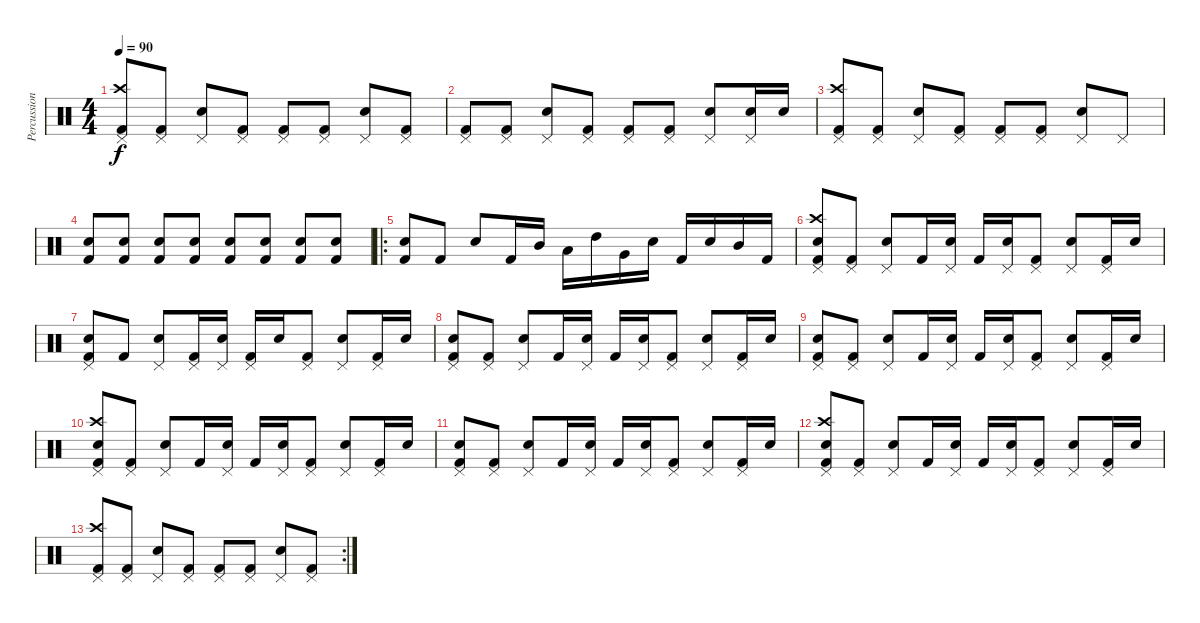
\track ("Percussions" "Percussion") {instrument percussion}
\staff {score}
\articulation defaults
\ts (4 4)
\tempo 90
\clef neutral
\ks c
("Pedal Hi-Hat (hit)" "Crash high (hit)" "Kick (hit) 2").8{dy f} ("Pedal Hi-Hat (hit)" "Kick (hit) 2").8 ("Pedal Hi-Hat (hit)" "Electric Snare (hit)").8 ("Pedal Hi-Hat (hit)" "Kick (hit) 2").8 ("Pedal Hi-Hat (hit)" "Kick (hit) 2").8 ("Pedal Hi-Hat (hit)" "Kick (hit) 2").8 ("Pedal Hi-Hat (hit)" "Electric Snare (hit)").8 ("Pedal Hi-Hat (hit)" "Kick (hit) 2").8 |
("Pedal Hi-Hat (hit)" "Kick (hit) 2").8 ("Pedal Hi-Hat (hit)" "Kick (hit) 2").8 ("Pedal Hi-Hat (hit)" "Electric Snare (hit)").8 ("Pedal Hi-Hat (hit)" "Kick (hit) 2").8 ("Pedal Hi-Hat (hit)" "Kick (hit) 2").8 ("Pedal Hi-Hat (hit)" "Kick (hit) 2").8 ("Pedal Hi-Hat (hit)" "Electric Snare (hit)").8 ("Pedal Hi-Hat (hit)" "Electric Snare (hit)").16 "Electric Snare (hit)".16 |
("Pedal Hi-Hat (hit)" "Crash high (hit)" "Kick (hit) 2").8 ("Pedal Hi-Hat (hit)" "Kick (hit) 2").8 ("Pedal Hi-Hat (hit)" "Electric Snare (hit)").8 ("Pedal Hi-Hat (hit)" "Kick (hit) 2").8 ("Pedal Hi-Hat (hit)" "Kick (hit) 2").8 ("Pedal Hi-Hat (hit)" "Kick (hit) 2").8 ("Pedal Hi-Hat (hit)" "Electric Snare (hit)").8 "Pedal Hi-Hat (hit)".8 |
("Electric Snare (hit)" "Kick (hit) 2").8 ("Electric Snare (hit)" "Kick (hit) 2").8 ("Electric Snare (hit)" "Kick (hit) 2").8 ("Electric Snare (hit)" "Kick (hit) 2").8 ("Electric Snare (hit)" "Kick (hit) 2").8 ("Electric Snare (hit)" "Kick (hit) 2").8 ("Electric Snare (hit)" "Kick (hit) 2").8 ("Electric Snare (hit)" "Kick (hit) 2").8 |
\ro
("Electric Snare (hit)" "Kick (hit) 2").8 "Kick (hit) 2".8 "Electric Snare (hit)".8 "Kick (hit) 2".16 "Mid Tom (hit)".16 "Low Tom (hit)".16 "High Tom (hit)".16 "Very Low Tom (hit)".16 "Electric Snare (hit)".16 "Kick (hit) 2".16 "Electric Snare (hit)".16 "Mid Tom (hit)".16 "Kick (hit) 2".16 |
("Pedal Hi-Hat (hit)" "Crash high (hit)" "Electric Snare (hit)" "Kick (hit) 2").8 ("Pedal Hi-Hat (hit)" "Kick (hit) 2").8 ("Pedal Hi-Hat (hit)" "Electric Snare (hit)").8 "Kick (hit) 2".16 ("Pedal Hi-Hat (hit)" "Electric Snare (hit)").16 "Kick (hit) 2".16 ("Pedal Hi-Hat (hit)" "Electric Snare (hit)").16 ("Pedal Hi-Hat (hit)" "Kick (hit) 2").8 ("Pedal Hi-Hat (hit)" "Electric Snare (hit)").8 ("Pedal Hi-Hat (hit)" "Kick (hit) 2").16 "Electric Snare (hit)".16 |
("Pedal Hi-Hat (hit)" "Electric Snare (hit)" "Kick (hit) 2").8 "Kick (hit) 2".8 ("Pedal Hi-Hat (hit)" "Electric Snare (hit)").8 ("Pedal Hi-Hat (hit)" "Kick (hit) 2").16 ("Pedal Hi-Hat (hit)" "Electric Snare (hit)").16 ("Pedal Hi-Hat (hit)" "Kick (hit) 2").16 "Electric Snare (hit)".16 ("Pedal Hi-Hat (hit)" "Kick (hit) 2").8 ("Pedal Hi-Hat (hit)" "Electric Snare (hit)").8 ("Pedal Hi-Hat (hit)" "Kick (hit) 2").16 "Electric Snare (hit)".16 |
("Pedal Hi-Hat (hit)" "Electric Snare (hit)" "Kick (hit) 2").8 ("Pedal Hi-Hat (hit)" "Kick (hit) 2").8 ("Pedal Hi-Hat (hit)" "Electric Snare (hit)").8 "Kick (hit) 2".16 ("Pedal Hi-Hat (hit)" "Electric Snare (hit)").16 "Kick (hit) 2".16 ("Pedal Hi-Hat (hit)" "Electric Snare (hit)").16 ("Pedal Hi-Hat (hit)" "Kick (hit) 2").8 ("Pedal Hi-Hat (hit)" "Electric Snare (hit)").8 ("Pedal Hi-Hat (hit)" "Kick (hit) 2").16 "Electric Snare (hit)".16 |
("Pedal Hi-Hat (hit)" "Electric Snare (hit)" "Kick (hit) 2").8 ("Pedal Hi-Hat (hit)" "Kick (hit) 2").8 ("Pedal Hi-Hat (hit)" "Electric Snare (hit)").8 "Kick (hit) 2".16 ("Pedal Hi-Hat (hit)" "Electric Snare (hit)").16 "Kick (hit) 2".16 ("Pedal Hi-Hat (hit)" "Electric Snare (hit)").16 ("Pedal Hi-Hat (hit)" "Kick (hit) 2").8 ("Pedal Hi-Hat (hit)" "Electric Snare (hit)").8 ("Pedal Hi-Hat (hit)" "Kick (hit) 2").16 "Electric Snare (hit)".16 |
("Pedal Hi-Hat (hit)" "Crash high (hit)" "Electric Snare (hit)" "Kick (hit) 2").8 ("Pedal Hi-Hat (hit)" "Kick (hit) 2").8 ("Pedal Hi-Hat (hit)" "Electric Snare (hit)").8 "Kick (hit) 2".16 ("Pedal Hi-Hat (hit)" "Electric Snare (hit)").16 "Kick (hit) 2".16 ("Pedal Hi-Hat (hit)" "Electric Snare (hit)").16 ("Pedal Hi-Hat (hit)" "Kick (hit) 2").8 ("Pedal Hi-Hat (hit)" "Electric Snare (hit)").8 ("Pedal Hi-Hat (hit)" "Kick (hit) 2").16 "Electric Snare (hit)".16 |
("Pedal Hi-Hat (hit)" "Electric Snare (hit)" "Kick (hit) 2").8 ("Pedal Hi-Hat (hit)" "Kick (hit) 2").8 ("Pedal Hi-Hat (hit)" "Electric Snare (hit)").8 "Kick (hit) 2".16 ("Pedal Hi-Hat (hit)" "Electric Snare (hit)").16 "Kick (hit) 2".16 ("Pedal Hi-Hat (hit)" "Electric Snare (hit)").16 ("Pedal Hi-Hat (hit)" "Kick (hit) 2").8 ("Pedal Hi-Hat (hit)" "Electric Snare (hit)").8 ("Pedal Hi-Hat (hit)" "Kick (hit) 2").16 "Electric Snare (hit)".16 |
("Pedal Hi-Hat (hit)" "Crash high (hit)" "Electric Snare (hit)" "Kick (hit) 2").8 ("Pedal Hi-Hat (hit)" "Kick (hit) 2").8 ("Pedal Hi-Hat (hit)" "Electric Snare (hit)").8 "Kick (hit) 2".16 ("Pedal Hi-Hat (hit)" "Electric Snare (hit)").16 "Kick (hit) 2".16 ("Pedal Hi-Hat (hit)" "Electric Snare (hit)").16 ("Pedal Hi-Hat (hit)" "Kick (hit) 2").8 ("Pedal Hi-Hat (hit)" "Electric Snare (hit)").8 ("Pedal Hi-Hat (hit)" "Kick (hit) 2").16 "Electric Snare (hit)".16 |
\rc 2
("Pedal Hi-Hat (hit)" "Crash high (hit)" "Kick (hit) 2").8 ("Pedal Hi-Hat (hit)" "Kick (hit) 2").8 ("Pedal Hi-Hat (hit)" "Electric Snare (hit)").8 ("Pedal Hi-Hat (hit)" "Kick (hit) 2").8 ("Pedal Hi-Hat (hit)" "Kick (hit) 2").8 ("Pedal Hi-Hat (hit)" "Kick (hit) 2").8 ("Pedal Hi-Hat (hit)" "Electric Snare (hit)").8 ("Pedal Hi-Hat (hit)" "Kick (hit) 2").8
